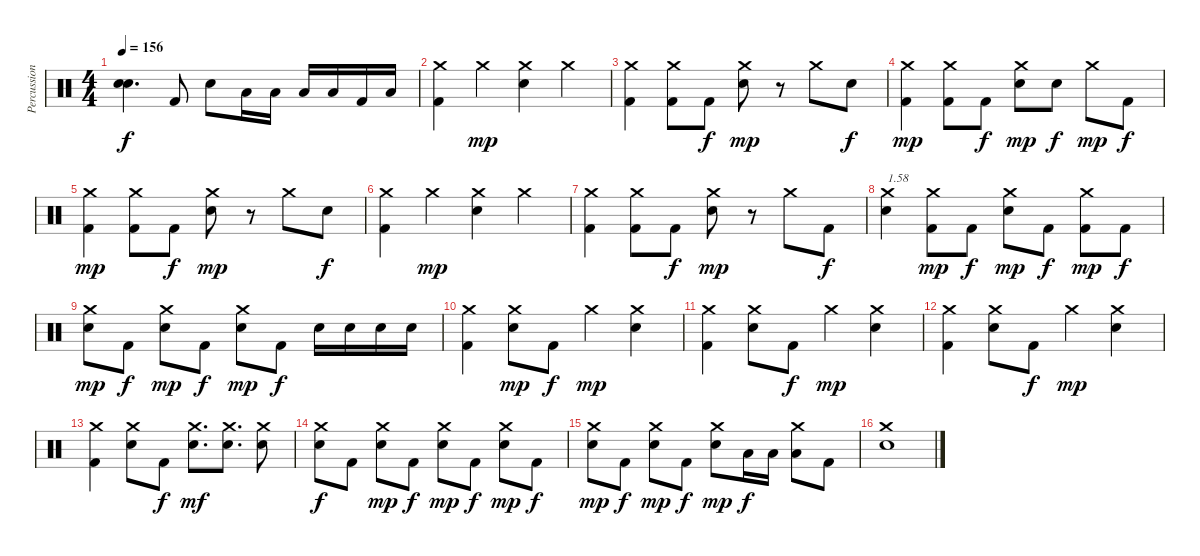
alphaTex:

\track ("Percussions" "Percussion") {instrument percussion}
\staff {score}
\articulation defaults
\ts (4 4)
\tempo 156
\clef neutral
\ks c
("Snare (hit)"{t} "Snare (hit)"{t}).4{d dy f} "Kick (hit) 2".8 "Electric Snare (hit)".8 "Low Floor Tom (hit)".16 "Low Floor Tom (hit)".16 "Low Floor Tom (hit)".16 "Low Floor Tom (hit)".16 "Kick (hit) 2".16 "Low Floor Tom (hit)".16 |
("Kick (hit) 2" "Crash medium (hit)").4 "Crash medium (hit)".4{dy mp} ("Electric Snare (hit)" "Crash medium (hit)").4 "Crash medium (hit)".4 |
("Kick (hit) 2" "Crash medium (hit)").4 ("Kick (hit) 2" "Crash medium (hit)").8 "Kick (hit) 2".8{dy f} ("Electric Snare (hit)" "Crash medium (hit)").8{dy mp} r.8 "Crash medium (hit)".8 "Electric Snare (hit)".8{dy f} |
("Kick (hit) 2" "Crash medium (hit)").4{dy mp} ("Kick (hit) 2" "Crash medium (hit)").8 "Kick (hit) 2".8{dy f} ("Electric Snare (hit)" "Crash medium (hit)").8{dy mp} "Electric Snare (hit)".8{dy f} "Crash medium (hit)".8{dy mp} "Kick (hit) 2".8{dy f} |
("Kick (hit) 2" "Crash medium (hit)").4{dy mp} ("Kick (hit) 2" "Crash medium (hit)").8 "Kick (hit) 2".8{dy f} ("Electric Snare (hit)" "Crash medium (hit)").8{dy mp} r.8 "Crash medium (hit)".8 "Electric Snare (hit)".8{dy f} |
("Kick (hit) 2" "Crash medium (hit)").4 "Crash medium (hit)".4{dy mp} ("Electric Snare (hit)" "Crash medium (hit)").4 "Crash medium (hit)".4 |
("Kick (hit) 2" "Crash medium (hit)").4 ("Kick (hit) 2" "Crash medium (hit)").8 "Kick (hit) 2".8{dy f} ("Electric Snare (hit)" "Crash medium (hit)").8{dy mp} r.8 "Crash medium (hit)".8 "Kick (hit) 2".8{dy f} |
("Electric Snare (hit)" "Crash medium (hit)").4{txt "1.58"} ("Kick (hit) 2" "Crash medium (hit)").8{dy mp} "Kick (hit) 2".8{dy f} ("Electric Snare (hit)" "Crash medium (hit)").8{dy mp} "Kick (hit) 2".8{dy f} ("Kick (hit) 2" "Crash medium (hit)").8{dy mp} "Kick (hit) 2".8{dy f} |
("Electric Snare (hit)" "Crash medium (hit)").8{dy mp} "Kick (hit) 2".8{dy f} ("Electric Snare (hit)" "Crash medium (hit)").8{dy mp} "Kick (hit) 2".8{dy f} ("Electric Snare (hit)" "Crash medium (hit)").8{dy mp} "Kick (hit) 2".8{dy f} "Electric Snare (hit)".16 "Electric Snare (hit)".16 "Electric Snare (hit)".16 "Electric Snare (hit)".16 |
("Kick (hit) 2" "Crash medium (hit)").4 ("Electric Snare (hit)" "Crash medium (hit)").8{dy mp} "Kick (hit) 2".8{dy f} "Crash medium (hit)".4{dy mp} ("Electric Snare (hit)" "Crash medium (hit)").4 |
("Kick (hit) 2" "Crash medium (hit)").4 ("Electric Snare (hit)" "Crash medium (hit)").8 "Kick (hit) 2".8{dy f} "Crash medium (hit)".4{dy mp} ("Electric Snare (hit)" "Crash medium (hit)").4 |
("Kick (hit) 2" "Crash medium (hit)").4 ("Electric Snare (hit)" "Crash medium (hit)").8 "Kick (hit) 2".8{dy f} "Crash medium (hit)".4{dy mp} ("Electric Snare (hit)" "Crash medium (hit)").4 |
("Kick (hit) 2" "Crash medium (hit)").4 ("Electric Snare (hit)" "Crash medium (hit)").8 "Kick (hit) 2".8{dy f} ("Electric Snare (hit)" "Crash medium (hit)").8{d dy mf} ("Electric Snare (hit)" "Crash medium (hit)").8{d} ("Electric Snare (hit)" "Crash medium (hit)").8 |
("Electric Snare (hit)" "Crash medium (hit)").8{dy f} "Kick (hit) 2".8 ("Electric Snare (hit)" "Crash medium (hit)").8{dy mp} "Kick (hit) 2".8{dy f} ("Electric Snare (hit)" "Crash medium (hit)").8{dy mp} "Kick (hit) 2".8{dy f} ("Electric Snare (hit)" "Crash medium (hit)").8{dy mp} "Kick (hit) 2".8{dy f} |
("Electric Snare (hit)" "Crash medium (hit)").8{dy mp} "Kick (hit) 2".8{dy f} ("Electric Snare (hit)" "Crash medium (hit)").8{dy mp} "Kick (hit) 2".8{dy f} ("Electric Snare (hit)" "Crash medium (hit)").8{dy mp} "Low Floor Tom (hit)".16{dy f} "Low Floor Tom (hit)".16 ("Low Floor Tom (hit)" "Crash medium (hit)").8 "Kick (hit) 2".8 |
("Electric Snare (hit)" "Crash medium (hit)").1
